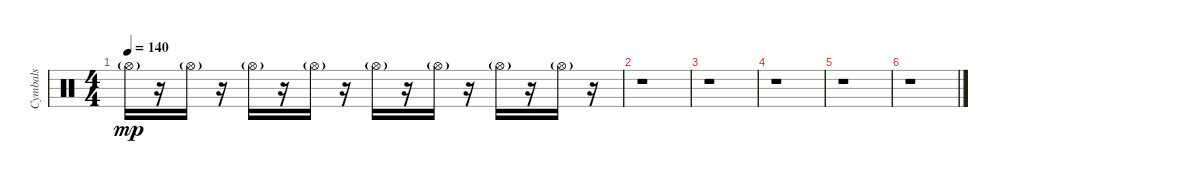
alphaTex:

\track ("Cymbals" "Cymbals") {instrument percussion}
\staff {score}
\articulation defaults
\ts (4 4)
\tempo 140
\clef neutral
\ks c "Hi-Hat (open)"{g}.16{dy mp}
r.16 "Hi-Hat (open)"{g}.16 r.16 "Hi-Hat (open)"{g}.16 r.16 "Hi-Hat (open)"{g}.16 r.16 "Hi-Hat (open)"{g}.16 r.16 "Hi-Hat (open)"{g}.16 r.16 "Hi-Hat (open)"{g}.16 r.16 "Hi-Hat (open)"{g}.16 r.16 |
r.1 |
r.1 |
r.1 |
r.1 |
r.1
